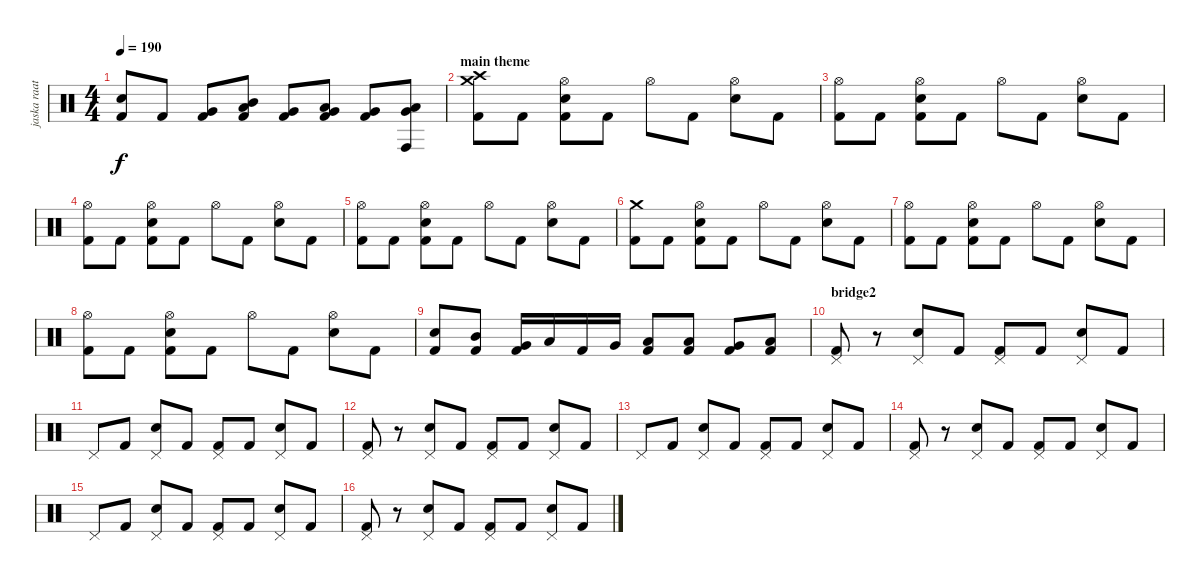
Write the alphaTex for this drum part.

\track ("jaska raatikainen" "jaska raat") {instrument percussion}
\staff {score}
\articulation defaults
\ts (4 4)
\tempo 190
\clef neutral
\ks c
("Snare (hit) 2" "Kick (hit) 2").8{dy f} "Kick (hit) 2".8 ("Very Low Tom (hit)" "Kick (hit) 2").8 ("Mid Tom (hit)" "Low Tom (hit)" "Kick (hit) 2").8 ("Very Low Tom (hit)" "Kick (hit) 2").8 ("Low Tom (hit)" "Very Low Tom (hit)" "Kick (hit) 2").8 ("Very Low Tom (hit)" "Kick (hit) 2").8 ("Very Low Tom (hit)" "Low Floor Tom (hit)" "Conga high (hit)").8 |
\section ("" "main theme")
("Crash medium (hit)" "Crash high (hit)" "Kick (hit) 2").8 "Kick (hit) 2".8 ("Hi-Hat (open)" "Snare (hit) 2" "Kick (hit) 2").8 "Kick (hit) 2".8 "Hi-Hat (open)".8 "Kick (hit) 2".8 ("Hi-Hat (open)" "Snare (hit) 2").8 "Kick (hit) 2".8 |
("Hi-Hat (open)" "Kick (hit) 2").8 "Kick (hit) 2".8 ("Hi-Hat (open)" "Snare (hit) 2" "Kick (hit) 2").8 "Kick (hit) 2".8 "Hi-Hat (open)".8 "Kick (hit) 2".8 ("Hi-Hat (open)" "Snare (hit) 2").8 "Kick (hit) 2".8 |
("Hi-Hat (open)" "Kick (hit) 2").8 "Kick (hit) 2".8 ("Hi-Hat (open)" "Snare (hit) 2" "Kick (hit) 2").8 "Kick (hit) 2".8 "Hi-Hat (open)".8 "Kick (hit) 2".8 ("Hi-Hat (open)" "Snare (hit) 2").8 "Kick (hit) 2".8 |
("Hi-Hat (open)" "Kick (hit) 2").8 "Kick (hit) 2".8 ("Hi-Hat (open)" "Snare (hit) 2" "Kick (hit) 2").8 "Kick (hit) 2".8 "Hi-Hat (open)".8 "Kick (hit) 2".8 ("Hi-Hat (open)" "Snare (hit) 2").8 "Kick (hit) 2".8 |
("Crash medium (hit)" "Kick (hit) 2").8 "Kick (hit) 2".8 ("Hi-Hat (open)" "Snare (hit) 2" "Kick (hit) 2").8 "Kick (hit) 2".8 "Hi-Hat (open)".8 "Kick (hit) 2".8 ("Hi-Hat (open)" "Snare (hit) 2").8 "Kick (hit) 2".8 |
("Hi-Hat (open)" "Kick (hit) 2").8 "Kick (hit) 2".8 ("Hi-Hat (open)" "Snare (hit) 2" "Kick (hit) 2").8 "Kick (hit) 2".8 "Hi-Hat (open)".8 "Kick (hit) 2".8 ("Hi-Hat (open)" "Snare (hit) 2").8 "Kick (hit) 2".8 |
("Hi-Hat (open)" "Kick (hit) 2").8 "Kick (hit) 2".8 ("Hi-Hat (open)" "Snare (hit) 2" "Kick (hit) 2").8 "Kick (hit) 2".8 "Hi-Hat (open)".8 "Kick (hit) 2".8 ("Hi-Hat (open)" "Snare (hit) 2").8 "Kick (hit) 2".8 |
("Snare (hit) 2" "Kick (hit) 2").8 ("Mid Tom (hit)" "Kick (hit) 2").8 ("Very Low Tom (hit)" "Kick (hit) 2").16 "Low Tom (hit)".16 "Kick (hit) 2".16 "Very Low Tom (hit)".16 ("Low Tom (hit)" "Kick (hit) 2").8 ("Low Tom (hit)" "Kick (hit) 2").8 ("Very Low Tom (hit)" "Kick (hit) 2").8 ("Low Floor Tom (hit)" "Kick (hit) 2").8 |
\section ("" "bridge2")
("Pedal Hi-Hat (hit)" "Kick (hit) 2").8 r.8 ("Pedal Hi-Hat (hit)" "Snare (hit) 2").8 "Kick (hit) 2".8 ("Pedal Hi-Hat (hit)" "Kick (hit) 2").8 "Kick (hit) 2".8 ("Pedal Hi-Hat (hit)" "Snare (hit) 2").8 "Kick (hit) 2".8 |
"Pedal Hi-Hat (hit)".8 "Kick (hit) 2".8 ("Pedal Hi-Hat (hit)" "Snare (hit) 2").8 "Kick (hit) 2".8 ("Pedal Hi-Hat (hit)" "Kick (hit) 2").8 "Kick (hit) 2".8 ("Pedal Hi-Hat (hit)" "Snare (hit) 2").8 "Kick (hit) 2".8 |
("Pedal Hi-Hat (hit)" "Kick (hit) 2").8 r.8 ("Pedal Hi-Hat (hit)" "Snare (hit) 2").8 "Kick (hit) 2".8 ("Pedal Hi-Hat (hit)" "Kick (hit) 2").8 "Kick (hit) 2".8 ("Pedal Hi-Hat (hit)" "Snare (hit) 2").8 "Kick (hit) 2".8 |
"Pedal Hi-Hat (hit)".8 "Kick (hit) 2".8 ("Pedal Hi-Hat (hit)" "Snare (hit) 2").8 "Kick (hit) 2".8 ("Pedal Hi-Hat (hit)" "Kick (hit) 2").8 "Kick (hit) 2".8 ("Pedal Hi-Hat (hit)" "Snare (hit) 2").8 "Kick (hit) 2".8 |
("Pedal Hi-Hat (hit)" "Kick (hit) 2").8 r.8 ("Pedal Hi-Hat (hit)" "Snare (hit) 2").8 "Kick (hit) 2".8 ("Pedal Hi-Hat (hit)" "Kick (hit) 2").8 "Kick (hit) 2".8 ("Pedal Hi-Hat (hit)" "Snare (hit) 2").8 "Kick (hit) 2".8 |
"Pedal Hi-Hat (hit)".8 "Kick (hit) 2".8 ("Pedal Hi-Hat (hit)" "Snare (hit) 2").8 "Kick (hit) 2".8 ("Pedal Hi-Hat (hit)" "Kick (hit) 2").8 "Kick (hit) 2".8 ("Pedal Hi-Hat (hit)" "Snare (hit) 2").8 "Kick (hit) 2".8 |
("Pedal Hi-Hat (hit)" "Kick (hit) 2").8 r.8 ("Pedal Hi-Hat (hit)" "Snare (hit) 2").8 "Kick (hit) 2".8 ("Pedal Hi-Hat (hit)" "Kick (hit) 2").8 "Kick (hit) 2".8 ("Pedal Hi-Hat (hit)" "Snare (hit) 2").8 "Kick (hit) 2".8
